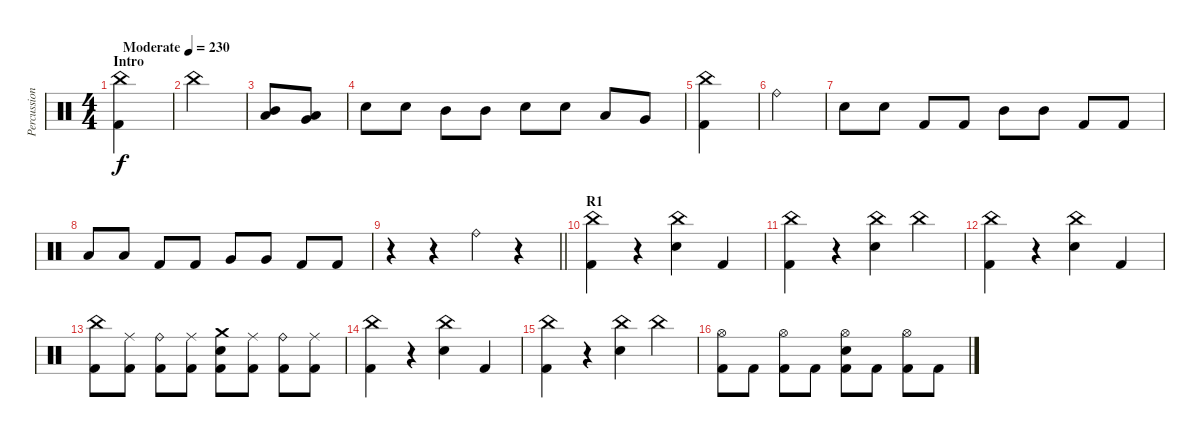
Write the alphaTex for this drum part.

\track ("Percussions" "Percussion") {instrument percussion}
\staff {score}
\articulation defaults
\ts (4 4)
\section ("" "Intro")
\tempo (230 "Moderate")
\clef neutral
\ks c
("China (hit)" "Kick (hit) 2").4{dy f} |
"China (hit)".4 |
("Mid Tom (hit)" "Low Tom (hit)").8 ("Very Low Tom (hit)" "Low Floor Tom (hit)").8 |
"Electric Snare (hit)".8 "Electric Snare (hit)".8 "Mid Tom (hit)".8 "Mid Tom (hit)".8 "Electric Snare (hit)".8 "Electric Snare (hit)".8 "Low Tom (hit)".8 "Very Low Tom (hit)".8 |
("China (hit)" "Kick (hit) 2").4 |
"Ride (bell)".4 |
"Electric Snare (hit)".8 "Electric Snare (hit)".8 "Kick (hit) 2".8 "Kick (hit) 2".8 "Mid Tom (hit)".8 "Mid Tom (hit)".8 "Kick (hit) 2".8 "Kick (hit) 2".8 |
"Low Tom (hit)".8 "Low Tom (hit)".8 "Kick (hit) 2".8 "Kick (hit) 2".8 "Very Low Tom (hit)".8 "Very Low Tom (hit)".8 "Kick (hit) 2".8 "Kick (hit) 2".8 |
\barLineRight lightlight
r.4 r.4 "Ride (bell)".4 r.4 |
\section ("" "R1")
("China (hit)" "Kick (hit) 2").4 r.4 ("China (hit)" "Electric Snare (hit)").4 "Kick (hit) 2".4 |
("China (hit)" "Kick (hit) 2").4 r.4 ("China (hit)" "Electric Snare (hit)").4 "China (hit)".4 |
("China (hit)" "Kick (hit) 2").4 r.4 ("China (hit)" "Electric Snare (hit)").4 "Kick (hit) 2".4 |
("China (hit)" "Kick (hit) 2").8 ("Ride (middle)" "Kick (hit) 2").8 ("Ride (bell)" "Kick (hit) 2").8 ("Ride (middle)" "Kick (hit) 2").8 ("Crash medium (hit)" "Electric Snare (hit)" "Kick (hit) 2").8 ("Ride (middle)" "Kick (hit) 2").8 ("Ride (bell)" "Kick (hit) 2").8 ("Ride (middle)" "Kick (hit) 2").8 |
("China (hit)" "Kick (hit) 2").4 r.4 ("China (hit)" "Electric Snare (hit)").4 "Kick (hit) 2".4 |
("China (hit)" "Kick (hit) 2").4 r.4 ("China (hit)" "Electric Snare (hit)").4 "China (hit)".4 |
("Hi-Hat (open)" "Kick (hit) 2").8 "Kick (hit) 2".8 ("Hi-Hat (open)" "Kick (hit) 2").8 "Kick (hit) 2".8 ("Hi-Hat (open)" "Electric Snare (hit)" "Kick (hit) 2").8 "Kick (hit) 2".8 ("Hi-Hat (open)" "Kick (hit) 2").8 "Kick (hit) 2".8
